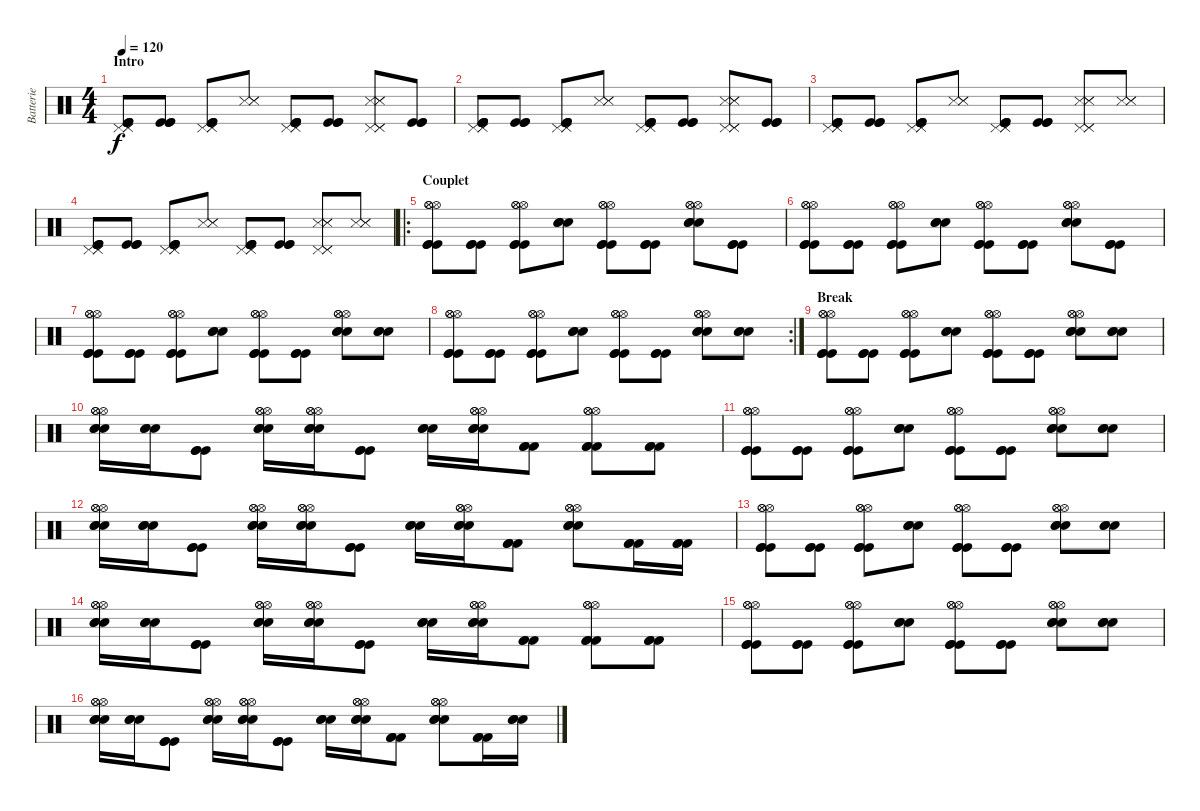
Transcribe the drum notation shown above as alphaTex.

\track ("Batterie" "Batterie") {instrument percussion}
\staff {score}
\articulation defaults
\ts (4 4)
\section ("" "Intro")
\tempo 120
\clef neutral
\ks c
("Pedal Hi-Hat (hit)" "Pedal Hi-Hat (hit)" "Pedal Hi-Hat (hit)" "Kick (hit)" "Kick (hit)" "Kick (hit)").8{dy f} ("Kick (hit)" "Kick (hit)" "Kick (hit)").8 ("Pedal Hi-Hat (hit)" "Kick (hit)" "Kick (hit)" "Kick (hit)" "Pedal Hi-Hat (hit)" "Pedal Hi-Hat (hit)").8 ("Snare (side stick) 3" "Snare (side stick) 3" "Snare (side stick) 3").8 ("Pedal Hi-Hat (hit)" "Kick (hit)" "Kick (hit)" "Kick (hit)" "Pedal Hi-Hat (hit)" "Pedal Hi-Hat (hit)").8 ("Kick (hit)" "Kick (hit)" "Kick (hit)").8 ("Pedal Hi-Hat (hit)" "Snare (side stick) 3" "Snare (side stick) 3" "Snare (side stick) 3" "Pedal Hi-Hat (hit)" "Pedal Hi-Hat (hit)").8 ("Kick (hit)" "Kick (hit)" "Kick (hit)").8 |
("Pedal Hi-Hat (hit)" "Pedal Hi-Hat (hit)" "Pedal Hi-Hat (hit)" "Kick (hit)" "Kick (hit)" "Kick (hit)").8 ("Kick (hit)" "Kick (hit)" "Kick (hit)").8 ("Pedal Hi-Hat (hit)" "Kick (hit)" "Kick (hit)" "Kick (hit)" "Pedal Hi-Hat (hit)" "Pedal Hi-Hat (hit)").8 ("Snare (side stick) 3" "Snare (side stick) 3" "Snare (side stick) 3").8 ("Pedal Hi-Hat (hit)" "Kick (hit)" "Kick (hit)" "Kick (hit)" "Pedal Hi-Hat (hit)" "Pedal Hi-Hat (hit)").8 ("Kick (hit)" "Kick (hit)" "Kick (hit)").8 ("Pedal Hi-Hat (hit)" "Snare (side stick) 3" "Snare (side stick) 3" "Snare (side stick) 3" "Pedal Hi-Hat (hit)" "Pedal Hi-Hat (hit)").8 ("Kick (hit)" "Kick (hit)" "Kick (hit)").8 |
("Pedal Hi-Hat (hit)" "Pedal Hi-Hat (hit)" "Pedal Hi-Hat (hit)" "Kick (hit)" "Kick (hit)" "Kick (hit)").8 ("Kick (hit)" "Kick (hit)" "Kick (hit)").8 ("Pedal Hi-Hat (hit)" "Kick (hit)" "Kick (hit)" "Kick (hit)" "Pedal Hi-Hat (hit)" "Pedal Hi-Hat (hit)").8 ("Snare (side stick) 3" "Snare (side stick) 3" "Snare (side stick) 3").8 ("Pedal Hi-Hat (hit)" "Kick (hit)" "Kick (hit)" "Kick (hit)" "Pedal Hi-Hat (hit)" "Pedal Hi-Hat (hit)").8 ("Kick (hit)" "Kick (hit)" "Kick (hit)").8 ("Pedal Hi-Hat (hit)" "Snare (side stick) 3" "Snare (side stick) 3" "Snare (side stick) 3" "Pedal Hi-Hat (hit)" "Pedal Hi-Hat (hit)").8 ("Snare (side stick) 3" "Snare (side stick) 3" "Snare (side stick) 3").8 |
("Pedal Hi-Hat (hit)" "Pedal Hi-Hat (hit)" "Pedal Hi-Hat (hit)" "Kick (hit)" "Kick (hit)" "Kick (hit)").8 ("Kick (hit)" "Kick (hit)" "Kick (hit)").8 ("Pedal Hi-Hat (hit)" "Kick (hit)" "Kick (hit)" "Kick (hit)" "Pedal Hi-Hat (hit)" "Pedal Hi-Hat (hit)").8 ("Snare (side stick) 3" "Snare (side stick) 3" "Snare (side stick) 3").8 ("Pedal Hi-Hat (hit)" "Kick (hit)" "Kick (hit)" "Kick (hit)" "Pedal Hi-Hat (hit)" "Pedal Hi-Hat (hit)").8 ("Kick (hit)" "Kick (hit)" "Kick (hit)").8 ("Pedal Hi-Hat (hit)" "Snare (side stick) 3" "Snare (side stick) 3" "Snare (side stick) 3" "Pedal Hi-Hat (hit)" "Pedal Hi-Hat (hit)").8 ("Snare (side stick) 3" "Snare (side stick) 3" "Snare (side stick) 3").8 |
\ro
\section ("" "Couplet")
("Kick (hit)" "Kick (hit)" "Kick (hit)" "Hi-Hat (open)" "Hi-Hat (open)" "Hi-Hat (open)").8 ("Kick (hit)" "Kick (hit)" "Kick (hit)").8 ("Hi-Hat (open)" "Kick (hit)" "Kick (hit)" "Kick (hit)" "Hi-Hat (open)" "Hi-Hat (open)").8 ("Snare (hit) 2" "Snare (hit) 2" "Snare (hit) 2").8 ("Kick (hit)" "Kick (hit)" "Kick (hit)" "Hi-Hat (open)" "Hi-Hat (open)" "Hi-Hat (open)").8 ("Kick (hit)" "Kick (hit)" "Kick (hit)").8 ("Hi-Hat (open)" "Snare (hit) 2" "Snare (hit) 2" "Snare (hit) 2" "Hi-Hat (open)" "Hi-Hat (open)").8 ("Kick (hit)" "Kick (hit)" "Kick (hit)").8 |
("Kick (hit)" "Kick (hit)" "Kick (hit)" "Hi-Hat (open)" "Hi-Hat (open)" "Hi-Hat (open)").8 ("Kick (hit)" "Kick (hit)" "Kick (hit)").8 ("Hi-Hat (open)" "Kick (hit)" "Kick (hit)" "Kick (hit)" "Hi-Hat (open)" "Hi-Hat (open)").8 ("Snare (hit) 2" "Snare (hit) 2" "Snare (hit) 2").8 ("Kick (hit)" "Kick (hit)" "Kick (hit)" "Hi-Hat (open)" "Hi-Hat (open)" "Hi-Hat (open)").8 ("Kick (hit)" "Kick (hit)" "Kick (hit)").8 ("Hi-Hat (open)" "Snare (hit) 2" "Snare (hit) 2" "Snare (hit) 2" "Hi-Hat (open)" "Hi-Hat (open)").8 ("Kick (hit)" "Kick (hit)" "Kick (hit)").8 |
("Kick (hit)" "Kick (hit)" "Kick (hit)" "Hi-Hat (open)" "Hi-Hat (open)" "Hi-Hat (open)").8 ("Kick (hit)" "Kick (hit)" "Kick (hit)").8 ("Hi-Hat (open)" "Kick (hit)" "Kick (hit)" "Kick (hit)" "Hi-Hat (open)" "Hi-Hat (open)").8 ("Snare (hit) 2" "Snare (hit) 2" "Snare (hit) 2").8 ("Kick (hit)" "Kick (hit)" "Kick (hit)" "Hi-Hat (open)" "Hi-Hat (open)" "Hi-Hat (open)").8 ("Kick (hit)" "Kick (hit)" "Kick (hit)").8 ("Hi-Hat (open)" "Snare (hit) 2" "Snare (hit) 2" "Snare (hit) 2" "Hi-Hat (open)" "Hi-Hat (open)").8 ("Snare (hit) 2" "Snare (hit) 2" "Snare (hit) 2").8 |
\rc 2
("Kick (hit)" "Kick (hit)" "Kick (hit)" "Hi-Hat (open)" "Hi-Hat (open)" "Hi-Hat (open)").8 ("Kick (hit)" "Kick (hit)" "Kick (hit)").8 ("Hi-Hat (open)" "Kick (hit)" "Kick (hit)" "Kick (hit)" "Hi-Hat (open)" "Hi-Hat (open)").8 ("Snare (hit) 2" "Snare (hit) 2" "Snare (hit) 2").8 ("Kick (hit)" "Kick (hit)" "Kick (hit)" "Hi-Hat (open)" "Hi-Hat (open)" "Hi-Hat (open)").8 ("Kick (hit)" "Kick (hit)" "Kick (hit)").8 ("Hi-Hat (open)" "Snare (hit) 2" "Snare (hit) 2" "Snare (hit) 2" "Hi-Hat (open)" "Hi-Hat (open)").8 ("Snare (hit) 2" "Snare (hit) 2" "Snare (hit) 2").8 |
\section ("" "Break")
("Kick (hit)" "Kick (hit)" "Kick (hit)" "Hi-Hat (open)" "Hi-Hat (open)" "Hi-Hat (open)").8 ("Kick (hit)" "Kick (hit)" "Kick (hit)").8 ("Hi-Hat (open)" "Kick (hit)" "Kick (hit)" "Kick (hit)" "Hi-Hat (open)" "Hi-Hat (open)").8 ("Snare (hit) 2" "Snare (hit) 2" "Snare (hit) 2").8 ("Kick (hit)" "Kick (hit)" "Kick (hit)" "Hi-Hat (open)" "Hi-Hat (open)" "Hi-Hat (open)").8 ("Kick (hit)" "Kick (hit)" "Kick (hit)").8 ("Hi-Hat (open)" "Snare (hit) 2" "Snare (hit) 2" "Snare (hit) 2" "Hi-Hat (open)" "Hi-Hat (open)").8 ("Snare (hit) 2" "Snare (hit) 2" "Snare (hit) 2").8 |
("Hi-Hat (open)" "Hi-Hat (open)" "Hi-Hat (open)" "Snare (hit) 2" "Snare (hit) 2" "Snare (hit) 2").16 ("Snare (hit) 2" "Snare (hit) 2" "Snare (hit) 2").16 ("Kick (hit)" "Kick (hit)" "Kick (hit)").8 ("Hi-Hat (open)" "Hi-Hat (open)" "Hi-Hat (open)" "Snare (hit) 2" "Snare (hit) 2" "Snare (hit) 2").16 ("Hi-Hat (open)" "Hi-Hat (open)" "Hi-Hat (open)" "Snare (hit) 2" "Snare (hit) 2" "Snare (hit) 2").16 ("Kick (hit)" "Kick (hit)" "Kick (hit)").8 ("Snare (hit) 2" "Snare (hit) 2" "Snare (hit) 2").16 ("Snare (hit) 2" "Snare (hit) 2" "Snare (hit) 2" "Hi-Hat (open)" "Hi-Hat (open)" "Hi-Hat (open)").16 ("Kick (hit) 2" "Kick (hit) 2" "Kick (hit) 2").8 ("Hi-Hat (open)" "Hi-Hat (open)" "Hi-Hat (open)" "Kick (hit) 2" "Kick (hit) 2" "Kick (hit) 2").8 ("Kick (hit) 2" "Kick (hit) 2" "Kick (hit) 2").8 |
("Kick (hit)" "Kick (hit)" "Kick (hit)" "Hi-Hat (open)" "Hi-Hat (open)" "Hi-Hat (open)").8 ("Kick (hit)" "Kick (hit)" "Kick (hit)").8 ("Hi-Hat (open)" "Kick (hit)" "Kick (hit)" "Kick (hit)" "Hi-Hat (open)" "Hi-Hat (open)").8 ("Snare (hit) 2" "Snare (hit) 2" "Snare (hit) 2").8 ("Kick (hit)" "Kick (hit)" "Kick (hit)" "Hi-Hat (open)" "Hi-Hat (open)" "Hi-Hat (open)").8 ("Kick (hit)" "Kick (hit)" "Kick (hit)").8 ("Hi-Hat (open)" "Snare (hit) 2" "Snare (hit) 2" "Snare (hit) 2" "Hi-Hat (open)" "Hi-Hat (open)").8 ("Snare (hit) 2" "Snare (hit) 2" "Snare (hit) 2").8 |
("Hi-Hat (open)" "Hi-Hat (open)" "Hi-Hat (open)" "Snare (hit) 2" "Snare (hit) 2" "Snare (hit) 2").16 ("Snare (hit) 2" "Snare (hit) 2" "Snare (hit) 2").16 ("Kick (hit)" "Kick (hit)" "Kick (hit)").8 ("Hi-Hat (open)" "Hi-Hat (open)" "Hi-Hat (open)" "Snare (hit) 2" "Snare (hit) 2" "Snare (hit) 2").16 ("Hi-Hat (open)" "Hi-Hat (open)" "Hi-Hat (open)" "Snare (hit) 2" "Snare (hit) 2" "Snare (hit) 2").16 ("Kick (hit)" "Kick (hit)" "Kick (hit)").8 ("Snare (hit) 2" "Snare (hit) 2" "Snare (hit) 2").16 ("Snare (hit) 2" "Snare (hit) 2" "Snare (hit) 2" "Hi-Hat (open)" "Hi-Hat (open)" "Hi-Hat (open)").16 ("Kick (hit) 2" "Kick (hit) 2" "Kick (hit) 2").8 ("Hi-Hat (open)" "Hi-Hat (open)" "Hi-Hat (open)" "Snare (hit) 2" "Snare (hit) 2" "Snare (hit) 2").8 ("Kick (hit) 2" "Kick (hit) 2" "Kick (hit) 2").16 ("Kick (hit) 2" "Kick (hit) 2" "Kick (hit) 2").16 |
("Kick (hit)" "Kick (hit)" "Kick (hit)" "Hi-Hat (open)" "Hi-Hat (open)" "Hi-Hat (open)").8 ("Kick (hit)" "Kick (hit)" "Kick (hit)").8 ("Hi-Hat (open)" "Kick (hit)" "Kick (hit)" "Kick (hit)" "Hi-Hat (open)" "Hi-Hat (open)").8 ("Snare (hit) 2" "Snare (hit) 2" "Snare (hit) 2").8 ("Kick (hit)" "Kick (hit)" "Kick (hit)" "Hi-Hat (open)" "Hi-Hat (open)" "Hi-Hat (open)").8 ("Kick (hit)" "Kick (hit)" "Kick (hit)").8 ("Hi-Hat (open)" "Snare (hit) 2" "Snare (hit) 2" "Snare (hit) 2" "Hi-Hat (open)" "Hi-Hat (open)").8 ("Snare (hit) 2" "Snare (hit) 2" "Snare (hit) 2").8 |
("Hi-Hat (open)" "Hi-Hat (open)" "Hi-Hat (open)" "Snare (hit) 2" "Snare (hit) 2" "Snare (hit) 2").16 ("Snare (hit) 2" "Snare (hit) 2" "Snare (hit) 2").16 ("Kick (hit)" "Kick (hit)" "Kick (hit)").8 ("Hi-Hat (open)" "Hi-Hat (open)" "Hi-Hat (open)" "Snare (hit) 2" "Snare (hit) 2" "Snare (hit) 2").16 ("Hi-Hat (open)" "Hi-Hat (open)" "Hi-Hat (open)" "Snare (hit) 2" "Snare (hit) 2" "Snare (hit) 2").16 ("Kick (hit)" "Kick (hit)" "Kick (hit)").8 ("Snare (hit) 2" "Snare (hit) 2" "Snare (hit) 2").16 ("Snare (hit) 2" "Snare (hit) 2" "Snare (hit) 2" "Hi-Hat (open)" "Hi-Hat (open)" "Hi-Hat (open)").16 ("Kick (hit) 2" "Kick (hit) 2" "Kick (hit) 2").8 ("Hi-Hat (open)" "Hi-Hat (open)" "Hi-Hat (open)" "Kick (hit) 2" "Kick (hit) 2" "Kick (hit) 2").8 ("Kick (hit) 2" "Kick (hit) 2" "Kick (hit) 2").8 |
("Kick (hit)" "Kick (hit)" "Kick (hit)" "Hi-Hat (open)" "Hi-Hat (open)" "Hi-Hat (open)").8 ("Kick (hit)" "Kick (hit)" "Kick (hit)").8 ("Hi-Hat (open)" "Kick (hit)" "Kick (hit)" "Kick (hit)" "Hi-Hat (open)" "Hi-Hat (open)").8 ("Snare (hit) 2" "Snare (hit) 2" "Snare (hit) 2").8 ("Kick (hit)" "Kick (hit)" "Kick (hit)" "Hi-Hat (open)" "Hi-Hat (open)" "Hi-Hat (open)").8 ("Kick (hit)" "Kick (hit)" "Kick (hit)").8 ("Hi-Hat (open)" "Snare (hit) 2" "Snare (hit) 2" "Snare (hit) 2" "Hi-Hat (open)" "Hi-Hat (open)").8 ("Snare (hit) 2" "Snare (hit) 2" "Snare (hit) 2").8 |
("Hi-Hat (open)" "Hi-Hat (open)" "Hi-Hat (open)" "Snare (hit) 2" "Snare (hit) 2" "Snare (hit) 2").16 ("Snare (hit) 2" "Snare (hit) 2" "Snare (hit) 2").16 ("Kick (hit)" "Kick (hit)" "Kick (hit)").8 ("Hi-Hat (open)" "Hi-Hat (open)" "Hi-Hat (open)" "Snare (hit) 2" "Snare (hit) 2" "Snare (hit) 2").16 ("Hi-Hat (open)" "Hi-Hat (open)" "Hi-Hat (open)" "Snare (hit) 2" "Snare (hit) 2" "Snare (hit) 2").16 ("Kick (hit)" "Kick (hit)" "Kick (hit)").8 ("Snare (hit) 2" "Snare (hit) 2" "Snare (hit) 2").16 ("Snare (hit) 2" "Snare (hit) 2" "Snare (hit) 2" "Hi-Hat (open)" "Hi-Hat (open)" "Hi-Hat (open)").16 ("Kick (hit) 2" "Kick (hit) 2" "Kick (hit) 2").8 ("Hi-Hat (open)" "Hi-Hat (open)" "Hi-Hat (open)" "Snare (hit) 2" "Snare (hit) 2" "Snare (hit) 2").8 ("Kick (hit) 2" "Kick (hit) 2" "Kick (hit) 2").16 ("Snare (hit) 2" "Snare (hit) 2" "Snare (hit) 2").16
